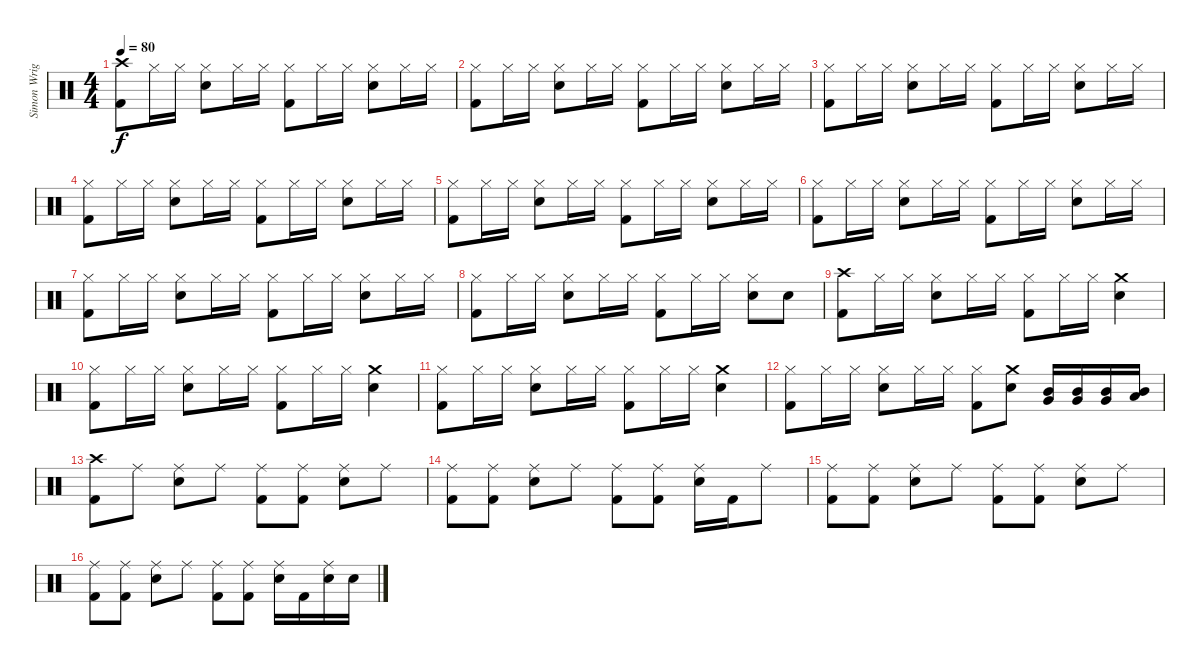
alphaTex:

\track ("Simon Wright" "Simon Wrig") {instrument percussion}
\staff {score}
\articulation defaults
\ts (4 4)
\tempo 80
\clef neutral
\ks c
("Crash high (hit)" "Kick (hit) 2").8{dy f} "Hi-Hat (closed)".16 "Hi-Hat (closed)".16 ("Hi-Hat (closed)" "Snare (hit) 2").8 "Hi-Hat (closed)".16 "Hi-Hat (closed)".16 ("Hi-Hat (closed)" "Kick (hit) 2").8 "Hi-Hat (closed)".16 "Hi-Hat (closed)".16 ("Hi-Hat (closed)" "Snare (hit) 2").8 "Hi-Hat (closed)".16 "Hi-Hat (closed)".16 |
("Hi-Hat (closed)" "Kick (hit) 2").8 "Hi-Hat (closed)".16 "Hi-Hat (closed)".16 ("Hi-Hat (closed)" "Snare (hit) 2").8 "Hi-Hat (closed)".16 "Hi-Hat (closed)".16 ("Hi-Hat (closed)" "Kick (hit) 2").8 "Hi-Hat (closed)".16 "Hi-Hat (closed)".16 ("Hi-Hat (closed)" "Snare (hit) 2").8 "Hi-Hat (closed)".16 "Hi-Hat (closed)".16 |
("Hi-Hat (closed)" "Kick (hit) 2").8 "Hi-Hat (closed)".16 "Hi-Hat (closed)".16 ("Hi-Hat (closed)" "Snare (hit) 2").8 "Hi-Hat (closed)".16 "Hi-Hat (closed)".16 ("Hi-Hat (closed)" "Kick (hit) 2").8 "Hi-Hat (closed)".16 "Hi-Hat (closed)".16 ("Hi-Hat (closed)" "Snare (hit) 2").8 "Hi-Hat (closed)".16 "Hi-Hat (closed)".16 |
("Hi-Hat (closed)" "Kick (hit) 2").8 "Hi-Hat (closed)".16 "Hi-Hat (closed)".16 ("Hi-Hat (closed)" "Snare (hit) 2").8 "Hi-Hat (closed)".16 "Hi-Hat (closed)".16 ("Hi-Hat (closed)" "Kick (hit) 2").8 "Hi-Hat (closed)".16 "Hi-Hat (closed)".16 ("Hi-Hat (closed)" "Snare (hit) 2").8 "Hi-Hat (closed)".16 "Hi-Hat (closed)".16 |
("Hi-Hat (closed)" "Kick (hit) 2").8 "Hi-Hat (closed)".16 "Hi-Hat (closed)".16 ("Hi-Hat (closed)" "Snare (hit) 2").8 "Hi-Hat (closed)".16 "Hi-Hat (closed)".16 ("Hi-Hat (closed)" "Kick (hit) 2").8 "Hi-Hat (closed)".16 "Hi-Hat (closed)".16 ("Hi-Hat (closed)" "Snare (hit) 2").8 "Hi-Hat (closed)".16 "Hi-Hat (closed)".16 |
("Hi-Hat (closed)" "Kick (hit) 2").8 "Hi-Hat (closed)".16 "Hi-Hat (closed)".16 ("Hi-Hat (closed)" "Snare (hit) 2").8 "Hi-Hat (closed)".16 "Hi-Hat (closed)".16 ("Hi-Hat (closed)" "Kick (hit) 2").8 "Hi-Hat (closed)".16 "Hi-Hat (closed)".16 ("Hi-Hat (closed)" "Snare (hit) 2").8 "Hi-Hat (closed)".16 "Hi-Hat (closed)".16 |
("Hi-Hat (closed)" "Kick (hit) 2").8 "Hi-Hat (closed)".16 "Hi-Hat (closed)".16 ("Hi-Hat (closed)" "Snare (hit) 2").8 "Hi-Hat (closed)".16 "Hi-Hat (closed)".16 ("Hi-Hat (closed)" "Kick (hit) 2").8 "Hi-Hat (closed)".16 "Hi-Hat (closed)".16 ("Hi-Hat (closed)" "Snare (hit) 2").8 "Hi-Hat (closed)".16 "Hi-Hat (closed)".16 |
("Hi-Hat (closed)" "Kick (hit) 2").8 "Hi-Hat (closed)".16 "Hi-Hat (closed)".16 ("Hi-Hat (closed)" "Snare (hit) 2").8 "Hi-Hat (closed)".16 "Hi-Hat (closed)".16 ("Hi-Hat (closed)" "Kick (hit) 2").8 "Hi-Hat (closed)".16 "Hi-Hat (closed)".16 ("Hi-Hat (closed)" "Snare (hit) 2").8 "Snare (hit) 2".8 |
("Crash high (hit)" "Kick (hit) 2").8 "Hi-Hat (closed)".16 "Hi-Hat (closed)".16 ("Hi-Hat (closed)" "Snare (hit) 2").8 "Hi-Hat (closed)".16 "Hi-Hat (closed)".16 ("Hi-Hat (closed)" "Kick (hit) 2").8 "Hi-Hat (closed)".16 "Hi-Hat (closed)".16 ("Crash medium (hit)" "Snare (hit) 2").4 |
("Hi-Hat (closed)" "Kick (hit) 2").8 "Hi-Hat (closed)".16 "Hi-Hat (closed)".16 ("Hi-Hat (closed)" "Snare (hit) 2").8 "Hi-Hat (closed)".16 "Hi-Hat (closed)".16 ("Hi-Hat (closed)" "Kick (hit) 2").8 "Hi-Hat (closed)".16 "Hi-Hat (closed)".16 ("Crash medium (hit)" "Snare (hit) 2").4 |
("Hi-Hat (closed)" "Kick (hit) 2").8 "Hi-Hat (closed)".16 "Hi-Hat (closed)".16 ("Hi-Hat (closed)" "Snare (hit) 2").8 "Hi-Hat (closed)".16 "Hi-Hat (closed)".16 ("Hi-Hat (closed)" "Kick (hit) 2").8 "Hi-Hat (closed)".16 "Hi-Hat (closed)".16 ("Crash medium (hit)" "Snare (hit) 2").4 |
("Hi-Hat (closed)" "Kick (hit) 2").8 "Hi-Hat (closed)".16 "Hi-Hat (closed)".16 ("Hi-Hat (closed)" "Snare (hit) 2").8 "Hi-Hat (closed)".16 "Hi-Hat (closed)".16 ("Hi-Hat (closed)" "Kick (hit) 2").8 ("Crash medium (hit)" "Snare (hit) 2").8 ("Mid Tom (hit)" "Very Low Tom (hit)").16 ("Mid Tom (hit)" "Very Low Tom (hit)").16 ("Mid Tom (hit)" "Very Low Tom (hit)").16 ("Mid Tom (hit)" "Low Floor Tom (hit)").16 |
("Crash high (hit)" "Kick (hit) 2").8 "Ride (middle)".8 ("Ride (middle)" "Snare (hit) 2").8 "Ride (middle)".8 ("Ride (middle)" "Kick (hit) 2").8 ("Ride (middle)" "Kick (hit) 2").8 ("Ride (middle)" "Snare (hit) 2").8 "Ride (middle)".8 |
("Ride (middle)" "Kick (hit) 2").8 ("Ride (middle)" "Kick (hit) 2").8 ("Ride (middle)" "Snare (hit) 2").8 "Ride (middle)".8 ("Ride (middle)" "Kick (hit) 2").8 ("Ride (middle)" "Kick (hit) 2").8 ("Ride (middle)" "Snare (hit) 2").16 "Kick (hit) 2".16 "Ride (middle)".8 |
("Ride (middle)" "Kick (hit) 2").8 ("Ride (middle)" "Kick (hit) 2").8 ("Ride (middle)" "Snare (hit) 2").8 "Ride (middle)".8 ("Ride (middle)" "Kick (hit) 2").8 ("Ride (middle)" "Kick (hit) 2").8 ("Ride (middle)" "Snare (hit) 2").8 "Ride (middle)".8 |
("Ride (middle)" "Kick (hit) 2").8 ("Ride (middle)" "Kick (hit) 2").8 ("Ride (middle)" "Snare (hit) 2").8 "Ride (middle)".8 ("Ride (middle)" "Kick (hit) 2").8 ("Ride (middle)" "Kick (hit) 2").8 ("Ride (middle)" "Snare (hit) 2").16 "Kick (hit) 2".16 ("Ride (middle)" "Snare (hit) 2").16 "Snare (hit) 2".16
